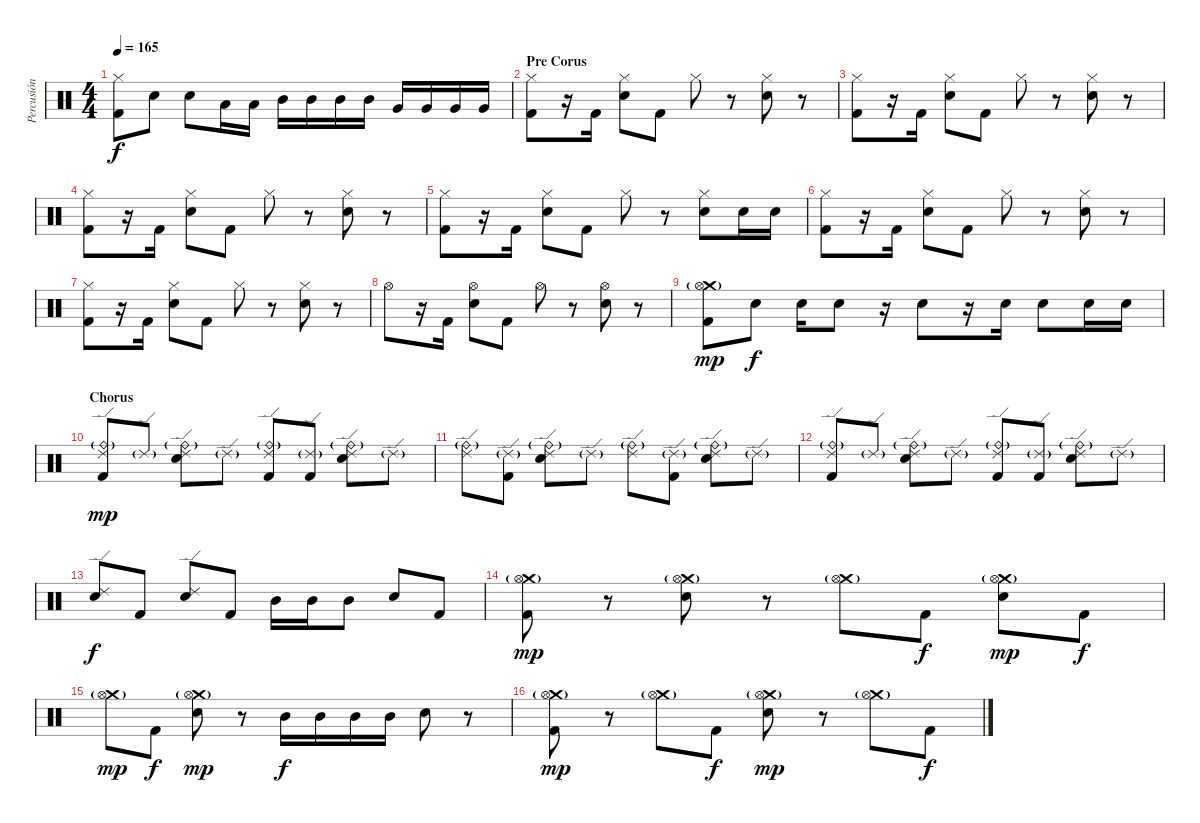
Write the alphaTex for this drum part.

\track ("Percusión" "Percusión") {instrument percussion}
\staff {score}
\articulation defaults
\ts (4 4)
\tempo 165
\clef neutral
\ks c
("Hi-Hat (closed)" "Kick (hit) 2").8{dy f} "Electric Snare (hit)".8 "Electric Snare (hit)".8 "Low Tom (hit)".16 "Low Tom (hit)".16 "Mid Tom (hit)".16 "Mid Tom (hit)".16 "Mid Tom (hit)".16 "Mid Tom (hit)".16 "Very Low Tom (hit)".16 "Very Low Tom (hit)".16 "Very Low Tom (hit)".16 "Very Low Tom (hit)".16 |
\section ("" "Pre Corus")
("Hi-Hat (closed)" "Kick (hit) 2").8 r.16 "Kick (hit) 2".16 ("Hi-Hat (closed)" "Electric Snare (hit)").8 "Kick (hit) 2".8 "Hi-Hat (closed)".8 r.8 ("Hi-Hat (closed)" "Electric Snare (hit)").8 r.8 |
("Hi-Hat (closed)" "Kick (hit) 2").8 r.16 "Kick (hit) 2".16 ("Hi-Hat (closed)" "Electric Snare (hit)").8 "Kick (hit) 2".8 "Hi-Hat (closed)".8 r.8 ("Hi-Hat (closed)" "Electric Snare (hit)").8 r.8 |
("Hi-Hat (closed)" "Kick (hit) 2").8 r.16 "Kick (hit) 2".16 ("Hi-Hat (closed)" "Electric Snare (hit)").8 "Kick (hit) 2".8 "Hi-Hat (closed)".8 r.8 ("Hi-Hat (closed)" "Electric Snare (hit)").8 r.8 |
("Hi-Hat (closed)" "Kick (hit) 2").8 r.16 "Kick (hit) 2".16 ("Hi-Hat (closed)" "Electric Snare (hit)").8 "Kick (hit) 2".8 "Hi-Hat (closed)".8 r.8 ("Hi-Hat (closed)" "Electric Snare (hit)").8 "Electric Snare (hit)".16 "Electric Snare (hit)".16 |
("Hi-Hat (closed)" "Kick (hit) 2").8 r.16 "Kick (hit) 2".16 ("Hi-Hat (closed)" "Electric Snare (hit)").8 "Kick (hit) 2".8 "Hi-Hat (closed)".8 r.8 ("Hi-Hat (closed)" "Electric Snare (hit)").8 r.8 |
("Hi-Hat (closed)" "Kick (hit) 2").8 r.16 "Kick (hit) 2".16 ("Hi-Hat (closed)" "Electric Snare (hit)").8 "Kick (hit) 2".8 "Hi-Hat (closed)".8 r.8 ("Hi-Hat (closed)" "Electric Snare (hit)").8 r.8 |
"Hi-Hat (open)".8 r.16 "Kick (hit) 2".16 ("Hi-Hat (open)" "Electric Snare (hit)").8 "Kick (hit) 2".8 "Hi-Hat (open)".8 r.8 ("Hi-Hat (open)" "Electric Snare (hit)").8 r.8 |
("Crash medium (hit)"{g} "Hi-Hat (open)" "Kick (hit) 2").8{dy mp} "Electric Snare (hit)".8{dy f} "Electric Snare (hit)".16 "Electric Snare (hit)".8 r.16 "Electric Snare (hit)".8 r.16 "Electric Snare (hit)".16 "Electric Snare (hit)".8 "Electric Snare (hit)".16 "Electric Snare (hit)".16 |
\section ("" "Chorus")
("Ride (bell)"{g} "Ride (edge) 2" "Kick (hit) 2").8{dy mp} "Ride (edge) 2"{g}.8 ("Ride (bell)"{g} "Ride (edge) 2" "Electric Snare (hit)").8 "Ride (edge) 2"{g}.8 ("Ride (bell)"{g} "Ride (edge) 2" "Kick (hit) 2").8 ("Ride (edge) 2"{g} "Kick (hit) 2").8 ("Ride (bell)"{g} "Ride (edge) 2" "Electric Snare (hit)").8 "Ride (edge) 2"{g}.8 |
("Ride (bell)"{g} "Ride (edge) 2").8 ("Ride (edge) 2"{g} "Kick (hit) 2").8 ("Ride (bell)"{g} "Ride (edge) 2" "Electric Snare (hit)").8 "Ride (edge) 2"{g}.8 ("Ride (bell)"{g} "Ride (edge) 2").8 ("Ride (edge) 2"{g} "Kick (hit) 2").8 ("Ride (bell)"{g} "Ride (edge) 2" "Electric Snare (hit)").8 "Ride (edge) 2"{g}.8 |
("Ride (bell)"{g} "Ride (edge) 2" "Kick (hit) 2").8 "Ride (edge) 2"{g}.8 ("Ride (bell)"{g} "Ride (edge) 2" "Electric Snare (hit)").8 "Ride (edge) 2"{g}.8 ("Ride (bell)"{g} "Ride (edge) 2" "Kick (hit) 2").8 ("Ride (edge) 2"{g} "Kick (hit) 2").8 ("Ride (bell)"{g} "Ride (edge) 2" "Electric Snare (hit)").8 "Ride (edge) 2"{g}.8 |
("Ride (edge) 2" "Electric Snare (hit)").8{dy f} "Kick (hit) 2".8 ("Ride (edge) 2" "Electric Snare (hit)").8 "Kick (hit) 2".8 "Mid Tom (hit)".16 "Mid Tom (hit)".16 "Mid Tom (hit)".8 "Electric Snare (hit)".8 "Kick (hit) 2".8 |
("Crash medium (hit)"{g} "Hi-Hat (open)" "Kick (hit) 2").8{dy mp} r.8 ("Crash medium (hit)"{g} "Hi-Hat (open)" "Electric Snare (hit)").8 r.8 ("Crash medium (hit)"{g} "Hi-Hat (open)").8 "Kick (hit) 2".8{dy f} ("Crash medium (hit)"{g} "Hi-Hat (open)" "Electric Snare (hit)").8{dy mp} "Kick (hit) 2".8{dy f} |
("Crash medium (hit)"{g} "Hi-Hat (open)").8{dy mp} "Kick (hit) 2".8{dy f} ("Crash medium (hit)"{g} "Hi-Hat (open)" "Electric Snare (hit)").8{dy mp} r.8 "Mid Tom (hit)".16{dy f} "Mid Tom (hit)".16 "Mid Tom (hit)".16 "Mid Tom (hit)".16 "Electric Snare (hit)".8 r.8 |
("Crash medium (hit)"{g} "Hi-Hat (open)" "Kick (hit) 2").8{dy mp} r.8 ("Crash medium (hit)"{g} "Hi-Hat (open)").8 "Kick (hit) 2".8{dy f} ("Crash medium (hit)"{g} "Hi-Hat (open)" "Electric Snare (hit)").8{dy mp} r.8 ("Crash medium (hit)"{g} "Hi-Hat (open)").8 "Kick (hit) 2".8{dy f}
